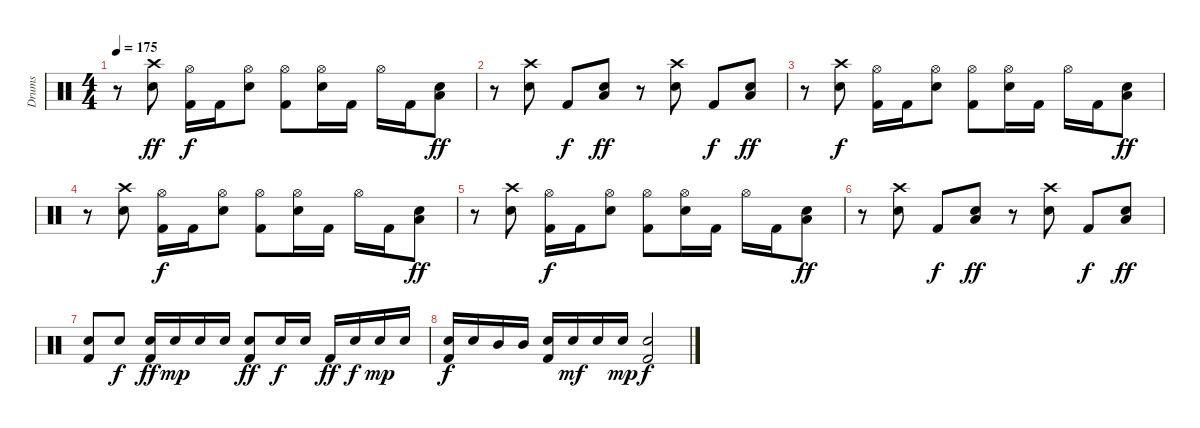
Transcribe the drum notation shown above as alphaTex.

\track ("Drums" "Drums") {instrument percussion}
\staff {score}
\articulation defaults
\ts (4 4)
\tempo 175
\clef neutral
\ks c
r.8{dy ff} ("Crash high (hit)" "Electric Snare (hit)").8 ("Hi-Hat (open)" "Kick (hit) 2").16{dy f} "Kick (hit) 2".16 ("Hi-Hat (open)" "Electric Snare (hit)").8 ("Hi-Hat (open)" "Kick (hit) 2").8 ("Hi-Hat (open)" "Electric Snare (hit)").16 "Kick (hit) 2".16 "Hi-Hat (open)".16 "Kick (hit) 2".16 ("Low Floor Tom (hit)" "Electric Snare (hit)").8{dy ff} |
r.8 ("Crash high (hit)" "Electric Snare (hit)").8 "Kick (hit) 2".8{dy f} ("Low Floor Tom (hit)" "Electric Snare (hit)").8{dy ff} r.8 ("Crash high (hit)" "Electric Snare (hit)").8 "Kick (hit) 2".8{dy f} ("Low Floor Tom (hit)" "Electric Snare (hit)").8{dy ff} |
r.8 ("Crash high (hit)" "Electric Snare (hit)").8{dy f} ("Hi-Hat (open)" "Kick (hit) 2").16 "Kick (hit) 2".16 ("Hi-Hat (open)" "Electric Snare (hit)").8 ("Hi-Hat (open)" "Kick (hit) 2").8 ("Hi-Hat (open)" "Electric Snare (hit)").16 "Kick (hit) 2".16 "Hi-Hat (open)".16 "Kick (hit) 2".16 ("Low Floor Tom (hit)" "Electric Snare (hit)").8{dy ff} |
r.8 ("Crash high (hit)" "Electric Snare (hit)").8 ("Hi-Hat (open)" "Kick (hit) 2").16{dy f} "Kick (hit) 2".16 ("Hi-Hat (open)" "Electric Snare (hit)").8 ("Hi-Hat (open)" "Kick (hit) 2").8 ("Hi-Hat (open)" "Electric Snare (hit)").16 "Kick (hit) 2".16 "Hi-Hat (open)".16 "Kick (hit) 2".16 ("Low Floor Tom (hit)" "Electric Snare (hit)").8{dy ff} |
r.8 ("Crash high (hit)" "Electric Snare (hit)").8 ("Hi-Hat (open)" "Kick (hit) 2").16{dy f} "Kick (hit) 2".16 ("Hi-Hat (open)" "Electric Snare (hit)").8 ("Hi-Hat (open)" "Kick (hit) 2").8 ("Hi-Hat (open)" "Electric Snare (hit)").16 "Kick (hit) 2".16 "Hi-Hat (open)".16 "Kick (hit) 2".16 ("Low Floor Tom (hit)" "Electric Snare (hit)").8{dy ff} |
r.8 ("Crash high (hit)" "Electric Snare (hit)").8 "Kick (hit) 2".8{dy f} ("Low Floor Tom (hit)" "Electric Snare (hit)").8{dy ff} r.8 ("Crash high (hit)" "Electric Snare (hit)").8 "Kick (hit) 2".8{dy f} ("Low Floor Tom (hit)" "Electric Snare (hit)").8{dy ff} |
("Electric Snare (hit)" "Kick (hit) 2").8 "Electric Snare (hit)".8{dy f} ("Electric Snare (hit)" "Kick (hit) 2").16{dy ff} "Electric Snare (hit)".16{dy mp} "Electric Snare (hit)".16 "Electric Snare (hit)".16 ("Electric Snare (hit)" "Kick (hit) 2").8{dy ff} "Electric Snare (hit)".16{dy f} "Electric Snare (hit)".16 "Kick (hit) 2".16{dy ff} "Electric Snare (hit)".16{dy f} "Electric Snare (hit)".16{dy mp} "Electric Snare (hit)".16 |
("Electric Snare (hit)" "Kick (hit) 2").16{dy f} "Electric Snare (hit)".16 "Mid Tom (hit)".16 "Mid Tom (hit)".16 ("Electric Snare (hit)" "Kick (hit) 2").16 "Electric Snare (hit)".16{dy mf} "Electric Snare (hit)".16 "Electric Snare (hit)".16{dy mp} ("Electric Snare (hit)" "Kick (hit) 2").2{dy f}
